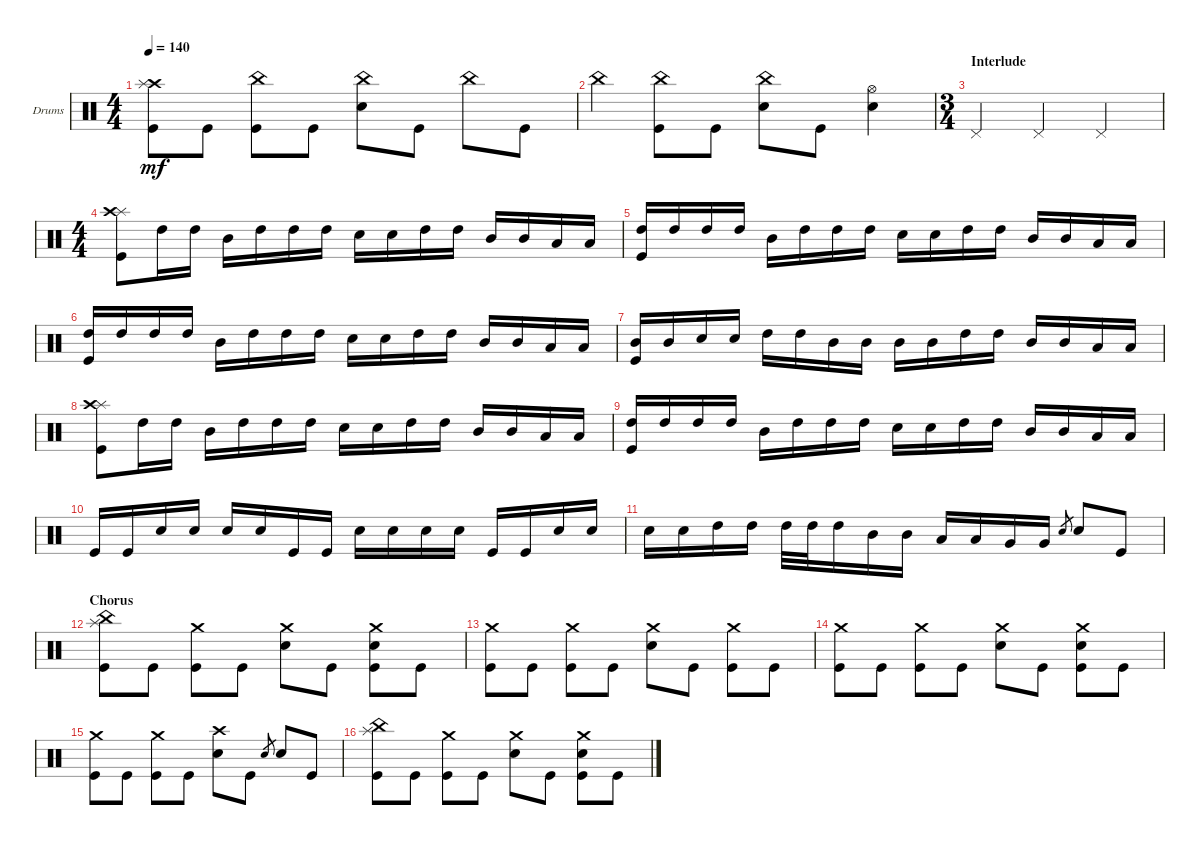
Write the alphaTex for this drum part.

\bracketExtendMode groupsimilarinstruments
\firstSystemTrackNameOrientation horizontal
\otherSystemsTrackNameOrientation horizontal
\track ("Drumkit" "Drums") {instrument percussion}
\staff {score}
\articulation defaults
\ts (4 4)
\tempo 140
\clef neutral
\ks c
("Crash high (hit)" "Splash (hit)" "Kick (hit)").8{dy mf} "Kick (hit)".8 ("Kick (hit)" "China (hit)").8 "Kick (hit)".8 ("Snare (hit) 2" "China (hit)").8 "Kick (hit)".8 "China (hit)".8 "Kick (hit)".8 |
"China (hit)".4 ("Kick (hit)" "China (hit)").8 "Kick (hit)".8 ("Snare (hit) 2" "China (hit)").8 "Kick (hit)".8 ("Snare (hit) 2" "Hi-Hat (open)").4 |
\ts (3 4)
\section ("" "Interlude")
"Pedal Hi-Hat (hit)".4 "Pedal Hi-Hat (hit)".4 "Pedal Hi-Hat (hit)".4 |
\ts (4 4)
("Kick (hit)" "Splash (hit)" "Crash high (hit)").8 "High Tom (hit)".16 "High Tom (hit)".16 "Mid Tom (hit)".16 "High Tom (hit)".16 "High Tom (hit)".16 "High Tom (hit)".16 "Snare (hit) 2".16 "Snare (hit) 2".16 "High Tom (hit)".16 "High Tom (hit)".16 "Mid Tom (hit)".16 "Mid Tom (hit)".16 "Low Tom (hit)".16 "Low Tom (hit)".16 |
("Kick (hit)" "High Tom (hit)").16 "High Tom (hit)".16 "High Tom (hit)".16 "High Tom (hit)".16 "Mid Tom (hit)".16 "High Tom (hit)".16 "High Tom (hit)".16 "High Tom (hit)".16 "Snare (hit) 2".16 "Snare (hit) 2".16 "High Tom (hit)".16 "High Tom (hit)".16 "Mid Tom (hit)".16 "Mid Tom (hit)".16 "Low Tom (hit)".16 "Low Tom (hit)".16 |
("Kick (hit)" "High Tom (hit)").16 "High Tom (hit)".16 "High Tom (hit)".16 "High Tom (hit)".16 "Mid Tom (hit)".16 "High Tom (hit)".16 "High Tom (hit)".16 "High Tom (hit)".16 "Snare (hit) 2".16 "Snare (hit) 2".16 "High Tom (hit)".16 "High Tom (hit)".16 "Mid Tom (hit)".16 "Mid Tom (hit)".16 "Low Tom (hit)".16 "Low Tom (hit)".16 |
("Kick (hit)" "Mid Tom (hit)").16 "Mid Tom (hit)".16 "Snare (hit) 2".16 "Snare (hit) 2".16 "High Tom (hit)".16 "High Tom (hit)".16 "Mid Tom (hit)".16 "Mid Tom (hit)".16 "Mid Tom (hit)".16 "Mid Tom (hit)".16 "High Tom (hit)".16 "High Tom (hit)".16 "Mid Tom (hit)".16 "Mid Tom (hit)".16 "Low Tom (hit)".16 "Low Tom (hit)".16 |
("Kick (hit)" "Splash (hit)" "Crash high (hit)").8 "High Tom (hit)".16 "High Tom (hit)".16 "Mid Tom (hit)".16 "High Tom (hit)".16 "High Tom (hit)".16 "High Tom (hit)".16 "Snare (hit) 2".16 "Snare (hit) 2".16 "High Tom (hit)".16 "High Tom (hit)".16 "Mid Tom (hit)".16 "Mid Tom (hit)".16 "Low Tom (hit)".16 "Low Tom (hit)".16 |
("Kick (hit)" "High Tom (hit)").16 "High Tom (hit)".16 "High Tom (hit)".16 "High Tom (hit)".16 "Mid Tom (hit)".16 "High Tom (hit)".16 "High Tom (hit)".16 "High Tom (hit)".16 "Snare (hit) 2".16 "Snare (hit) 2".16 "High Tom (hit)".16 "High Tom (hit)".16 "Mid Tom (hit)".16 "Mid Tom (hit)".16 "Low Tom (hit)".16 "Low Tom (hit)".16 |
"Kick (hit)".16 "Kick (hit)".16 "Snare (hit) 2".16 "Snare (hit) 2".16 "Snare (hit) 2".16 "Snare (hit) 2".16 "Kick (hit)".16 "Kick (hit)".16 "Snare (hit) 2".16 "Snare (hit) 2".16 "Snare (hit) 2".16 "Snare (hit) 2".16 "Kick (hit)".16 "Kick (hit)".16 "Snare (hit) 2".16 "Snare (hit) 2".16 |
"Snare (hit) 2".16 "Snare (hit) 2".16 "High Tom (hit)".16 "High Tom (hit)".16 "High Tom (hit)".32 "High Tom (hit)".32 "High Tom (hit)".16 "Mid Tom (hit)".16 "Mid Tom (hit)".16 "Low Tom (hit)".16 "Low Tom (hit)".16 "Very Low Tom (hit)".16 "Very Low Tom (hit)".16 "Snare (hit) 2".8{gr} "Snare (hit) 2".8 "Kick (hit)".8 |
\section ("" "Chorus")
("China (hit)" "Splash (hit)" "Kick (hit)").8 "Kick (hit)".8 ("Kick (hit)" "Crash medium (hit)").8 "Kick (hit)".8 ("Snare (hit) 2" "Crash medium (hit)").8 "Kick (hit)".8 ("Kick (hit)" "Crash medium (hit)" "Snare (hit) 2").8 "Kick (hit)".8 |
("Kick (hit)" "Crash medium (hit)").8 "Kick (hit)".8 ("Kick (hit)" "Crash medium (hit)").8 "Kick (hit)".8 ("Snare (hit) 2" "Crash medium (hit)").8 "Kick (hit)".8 ("Kick (hit)" "Crash medium (hit)").8 "Kick (hit)".8 |
("Kick (hit)" "Crash medium (hit)").8 "Kick (hit)".8 ("Kick (hit)" "Crash medium (hit)").8 "Kick (hit)".8 ("Snare (hit) 2" "Crash medium (hit)").8 "Kick (hit)".8 ("Kick (hit)" "Crash medium (hit)" "Snare (hit) 2").8 "Kick (hit)".8 |
("Kick (hit)" "Crash medium (hit)").8 "Kick (hit)".8 ("Kick (hit)" "Crash medium (hit)").8 "Kick (hit)".8 ("Snare (hit) 2" "Crash high (hit)").8 "Kick (hit)".8 "Snare (hit) 2".8{gr} "Snare (hit) 2".8 "Kick (hit)".8 |
("China (hit)" "Splash (hit)" "Kick (hit)").8 "Kick (hit)".8 ("Kick (hit)" "Crash medium (hit)").8 "Kick (hit)".8 ("Snare (hit) 2" "Crash medium (hit)").8 "Kick (hit)".8 ("Kick (hit)" "Crash medium (hit)" "Snare (hit) 2").8 "Kick (hit)".8
